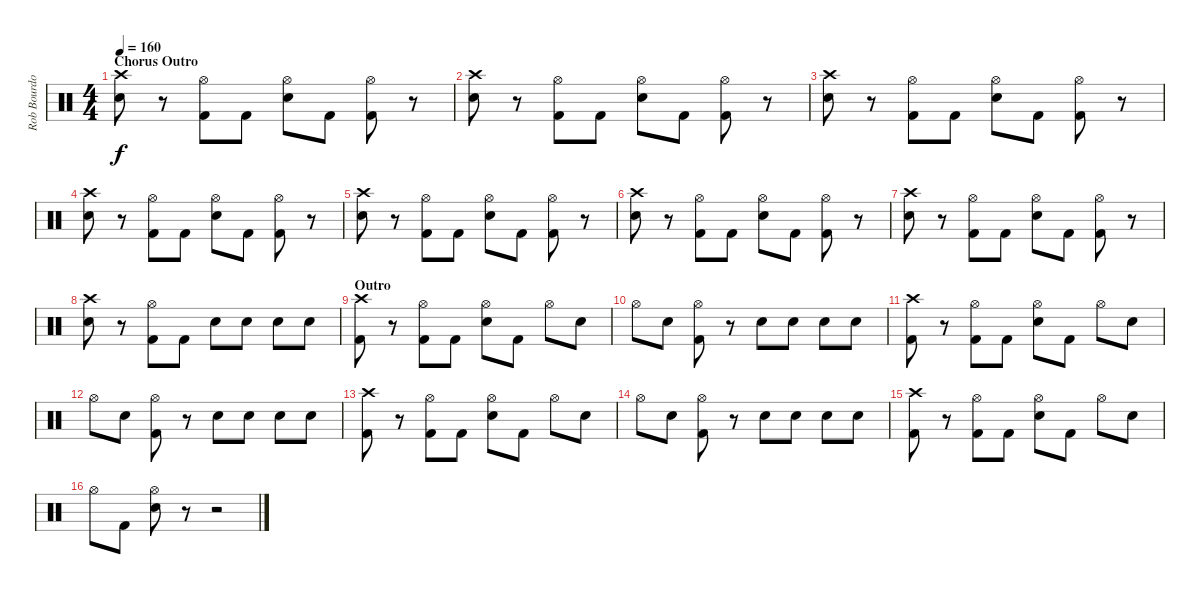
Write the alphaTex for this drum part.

\track ("Rob Bourdon (Drums)" "Rob Bourdo") {instrument percussion}
\staff {score}
\articulation defaults
\ts (4 4)
\section ("" "Chorus Outro")
\tempo 160
\clef neutral
\ks c
("Crash high (hit)" "Electric Snare (hit)").8{dy f} r.8 ("Hi-Hat (open)" "Kick (hit) 2").8 "Kick (hit) 2".8 ("Hi-Hat (open)" "Electric Snare (hit)").8 "Kick (hit) 2".8 ("Hi-Hat (open)" "Kick (hit) 2").8 r.8 |
("Crash high (hit)" "Electric Snare (hit)").8 r.8 ("Hi-Hat (open)" "Kick (hit) 2").8 "Kick (hit) 2".8 ("Hi-Hat (open)" "Electric Snare (hit)").8 "Kick (hit) 2".8 ("Hi-Hat (open)" "Kick (hit) 2").8 r.8 |
("Crash high (hit)" "Electric Snare (hit)").8 r.8 ("Hi-Hat (open)" "Kick (hit) 2").8 "Kick (hit) 2".8 ("Hi-Hat (open)" "Electric Snare (hit)").8 "Kick (hit) 2".8 ("Hi-Hat (open)" "Kick (hit) 2").8 r.8 |
("Crash high (hit)" "Electric Snare (hit)").8 r.8 ("Hi-Hat (open)" "Kick (hit) 2").8 "Kick (hit) 2".8 ("Hi-Hat (open)" "Electric Snare (hit)").8 "Kick (hit) 2".8 ("Hi-Hat (open)" "Kick (hit) 2").8 r.8 |
("Crash high (hit)" "Electric Snare (hit)").8 r.8 ("Hi-Hat (open)" "Kick (hit) 2").8 "Kick (hit) 2".8 ("Hi-Hat (open)" "Electric Snare (hit)").8 "Kick (hit) 2".8 ("Hi-Hat (open)" "Kick (hit) 2").8 r.8 |
("Crash high (hit)" "Electric Snare (hit)").8 r.8 ("Hi-Hat (open)" "Kick (hit) 2").8 "Kick (hit) 2".8 ("Hi-Hat (open)" "Electric Snare (hit)").8 "Kick (hit) 2".8 ("Hi-Hat (open)" "Kick (hit) 2").8 r.8 |
("Crash high (hit)" "Electric Snare (hit)").8 r.8 ("Hi-Hat (open)" "Kick (hit) 2").8 "Kick (hit) 2".8 ("Hi-Hat (open)" "Electric Snare (hit)").8 "Kick (hit) 2".8 ("Hi-Hat (open)" "Kick (hit) 2").8 r.8 |
("Crash high (hit)" "Electric Snare (hit)").8 r.8 ("Hi-Hat (open)" "Kick (hit) 2").8 "Kick (hit) 2".8 "Electric Snare (hit)".8 "Electric Snare (hit)".8 "Electric Snare (hit)".8 "Electric Snare (hit)".8 |
\section ("" "Outro")
("Crash high (hit)" "Kick (hit) 2").8 r.8 ("Hi-Hat (open)" "Kick (hit) 2").8 "Kick (hit) 2".8 ("Hi-Hat (open)" "Electric Snare (hit)").8 "Kick (hit) 2".8 "Hi-Hat (open)".8 "Electric Snare (hit)".8 |
"Hi-Hat (open)".8 "Electric Snare (hit)".8 ("Hi-Hat (open)" "Kick (hit) 2").8 r.8 "Electric Snare (hit)".8 "Electric Snare (hit)".8 "Electric Snare (hit)".8 "Electric Snare (hit)".8 |
("Crash high (hit)" "Kick (hit) 2").8 r.8 ("Hi-Hat (open)" "Kick (hit) 2").8 "Kick (hit) 2".8 ("Hi-Hat (open)" "Electric Snare (hit)").8 "Kick (hit) 2".8 "Hi-Hat (open)".8 "Electric Snare (hit)".8 |
"Hi-Hat (open)".8 "Electric Snare (hit)".8 ("Hi-Hat (open)" "Kick (hit) 2").8 r.8 "Electric Snare (hit)".8 "Electric Snare (hit)".8 "Electric Snare (hit)".8 "Electric Snare (hit)".8 |
("Crash high (hit)" "Kick (hit) 2").8 r.8 ("Hi-Hat (open)" "Kick (hit) 2").8 "Kick (hit) 2".8 ("Hi-Hat (open)" "Electric Snare (hit)").8 "Kick (hit) 2".8 "Hi-Hat (open)".8 "Electric Snare (hit)".8 |
"Hi-Hat (open)".8 "Electric Snare (hit)".8 ("Hi-Hat (open)" "Kick (hit) 2").8 r.8 "Electric Snare (hit)".8 "Electric Snare (hit)".8 "Electric Snare (hit)".8 "Electric Snare (hit)".8 |
("Crash high (hit)" "Kick (hit) 2").8 r.8 ("Hi-Hat (open)" "Kick (hit) 2").8 "Kick (hit) 2".8 ("Hi-Hat (open)" "Electric Snare (hit)").8 "Kick (hit) 2".8 "Hi-Hat (open)".8 "Electric Snare (hit)".8 |
"Hi-Hat (open)".8 "Kick (hit) 2".8 ("Hi-Hat (open)" "Electric Snare (hit)").8 r.8 r.2
